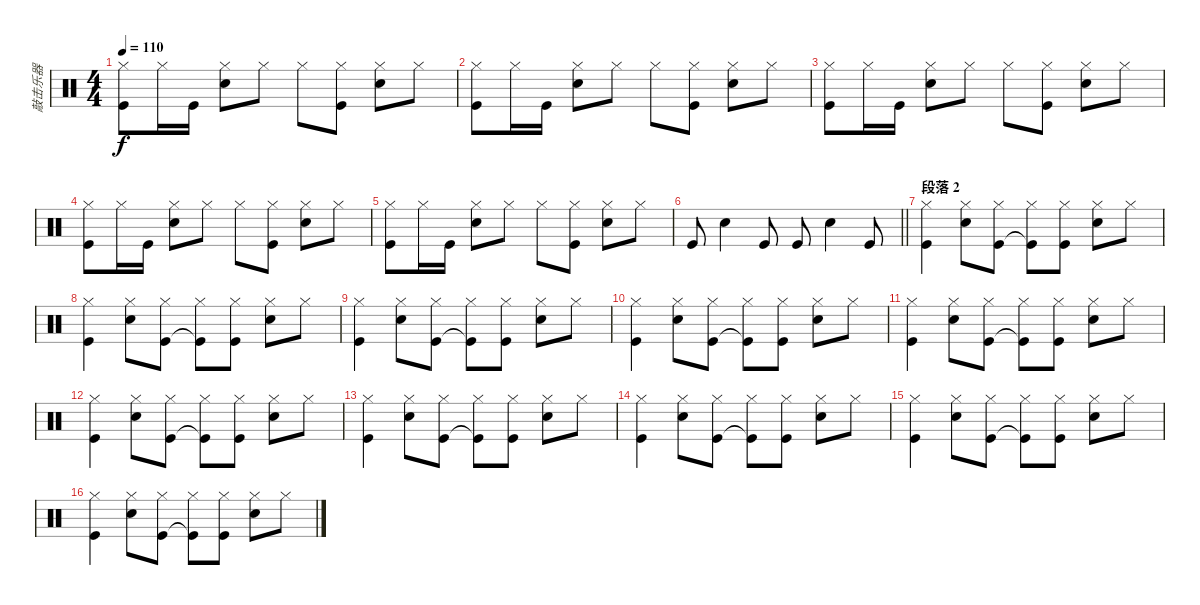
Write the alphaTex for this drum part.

\track ("敲击乐器" "敲击乐器") {instrument percussion}
\staff {score}
\articulation defaults
\ts (4 4)
\tempo 110
\clef neutral
\ks c
("Hi-Hat (closed)" "Kick (hit)").8{dy f} "Hi-Hat (closed)".16 "Kick (hit)".16 ("Hi-Hat (closed)" "Snare (hit) 2").8 "Hi-Hat (closed)".8 "Hi-Hat (closed)".8 ("Hi-Hat (closed)" "Kick (hit)").8 ("Snare (hit) 2" "Hi-Hat (closed)").8 "Hi-Hat (closed)".8 |
("Hi-Hat (closed)" "Kick (hit)").8 "Hi-Hat (closed)".16 "Kick (hit)".16 ("Hi-Hat (closed)" "Snare (hit) 2").8 "Hi-Hat (closed)".8 "Hi-Hat (closed)".8 ("Hi-Hat (closed)" "Kick (hit)").8 ("Snare (hit) 2" "Hi-Hat (closed)").8 "Hi-Hat (closed)".8 |
("Hi-Hat (closed)" "Kick (hit)").8 "Hi-Hat (closed)".16 "Kick (hit)".16 ("Hi-Hat (closed)" "Snare (hit) 2").8 "Hi-Hat (closed)".8 "Hi-Hat (closed)".8 ("Hi-Hat (closed)" "Kick (hit)").8 ("Snare (hit) 2" "Hi-Hat (closed)").8 "Hi-Hat (closed)".8 |
("Hi-Hat (closed)" "Kick (hit)").8 "Hi-Hat (closed)".16 "Kick (hit)".16 ("Hi-Hat (closed)" "Snare (hit) 2").8 "Hi-Hat (closed)".8 "Hi-Hat (closed)".8 ("Hi-Hat (closed)" "Kick (hit)").8 ("Snare (hit) 2" "Hi-Hat (closed)").8 "Hi-Hat (closed)".8 |
("Hi-Hat (closed)" "Kick (hit)").8 "Hi-Hat (closed)".16 "Kick (hit)".16 ("Hi-Hat (closed)" "Snare (hit) 2").8 "Hi-Hat (closed)".8 "Hi-Hat (closed)".8 ("Hi-Hat (closed)" "Kick (hit)").8 ("Snare (hit) 2" "Hi-Hat (closed)").8 "Hi-Hat (closed)".8 |
\barLineRight lightlight "Kick (hit)".8 "Snare (hit) 2".4 "Kick (hit)".8 "Kick (hit)".8 "Snare (hit) 2".4 "Kick (hit)".8
|
\section ("" "段落 2")
("Hi-Hat (closed)" "Kick (hit)").4 ("Hi-Hat (closed)" "Snare (hit) 2").8 ("Hi-Hat (closed)" "Kick (hit)").8 ("Hi-Hat (closed)" "Kick (hit)"{t}).8 ("Kick (hit)" "Hi-Hat (closed)").8 ("Snare (hit) 2" "Hi-Hat (closed)").8 "Hi-Hat (closed)".8 |
("Hi-Hat (closed)" "Kick (hit)").4 ("Hi-Hat (closed)" "Snare (hit) 2").8 ("Hi-Hat (closed)" "Kick (hit)").8 ("Hi-Hat (closed)" "Kick (hit)"{t}).8 ("Kick (hit)" "Hi-Hat (closed)").8 ("Snare (hit) 2" "Hi-Hat (closed)").8 "Hi-Hat (closed)".8 |
("Hi-Hat (closed)" "Kick (hit)").4 ("Hi-Hat (closed)" "Snare (hit) 2").8 ("Hi-Hat (closed)" "Kick (hit)").8 ("Hi-Hat (closed)" "Kick (hit)"{t}).8 ("Kick (hit)" "Hi-Hat (closed)").8 ("Snare (hit) 2" "Hi-Hat (closed)").8 "Hi-Hat (closed)".8 |
("Hi-Hat (closed)" "Kick (hit)").4 ("Hi-Hat (closed)" "Snare (hit) 2").8 ("Hi-Hat (closed)" "Kick (hit)").8 ("Hi-Hat (closed)" "Kick (hit)"{t}).8 ("Kick (hit)" "Hi-Hat (closed)").8 ("Snare (hit) 2" "Hi-Hat (closed)").8 "Hi-Hat (closed)".8 |
("Hi-Hat (closed)" "Kick (hit)").4 ("Hi-Hat (closed)" "Snare (hit) 2").8 ("Hi-Hat (closed)" "Kick (hit)").8 ("Hi-Hat (closed)" "Kick (hit)"{t}).8 ("Kick (hit)" "Hi-Hat (closed)").8 ("Snare (hit) 2" "Hi-Hat (closed)").8 "Hi-Hat (closed)".8 |
("Hi-Hat (closed)" "Kick (hit)").4 ("Hi-Hat (closed)" "Snare (hit) 2").8 ("Hi-Hat (closed)" "Kick (hit)").8 ("Hi-Hat (closed)" "Kick (hit)"{t}).8 ("Kick (hit)" "Hi-Hat (closed)").8 ("Snare (hit) 2" "Hi-Hat (closed)").8 "Hi-Hat (closed)".8 |
("Hi-Hat (closed)" "Kick (hit)").4 ("Hi-Hat (closed)" "Snare (hit) 2").8 ("Hi-Hat (closed)" "Kick (hit)").8 ("Hi-Hat (closed)" "Kick (hit)"{t}).8 ("Kick (hit)" "Hi-Hat (closed)").8 ("Snare (hit) 2" "Hi-Hat (closed)").8 "Hi-Hat (closed)".8 |
("Hi-Hat (closed)" "Kick (hit)").4 ("Hi-Hat (closed)" "Snare (hit) 2").8 ("Hi-Hat (closed)" "Kick (hit)").8 ("Hi-Hat (closed)" "Kick (hit)"{t}).8 ("Kick (hit)" "Hi-Hat (closed)").8 ("Snare (hit) 2" "Hi-Hat (closed)").8 "Hi-Hat (closed)".8 |
("Hi-Hat (closed)" "Kick (hit)").4 ("Hi-Hat (closed)" "Snare (hit) 2").8 ("Hi-Hat (closed)" "Kick (hit)").8 ("Hi-Hat (closed)" "Kick (hit)"{t}).8 ("Kick (hit)" "Hi-Hat (closed)").8 ("Snare (hit) 2" "Hi-Hat (closed)").8 "Hi-Hat (closed)".8 |
("Hi-Hat (closed)" "Kick (hit)").4 ("Hi-Hat (closed)" "Snare (hit) 2").8 ("Hi-Hat (closed)" "Kick (hit)").8 ("Hi-Hat (closed)" "Kick (hit)"{t}).8 ("Kick (hit)" "Hi-Hat (closed)").8 ("Snare (hit) 2" "Hi-Hat (closed)").8 "Hi-Hat (closed)".8
